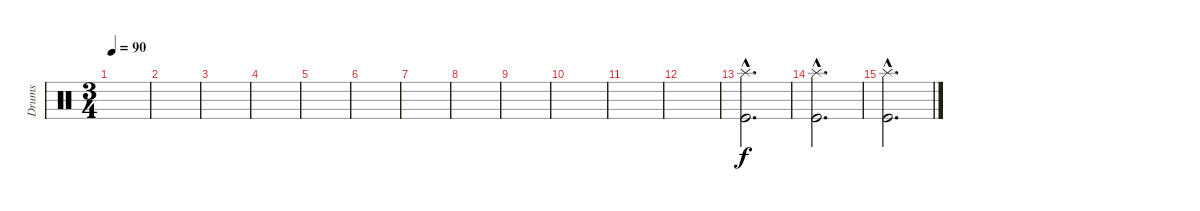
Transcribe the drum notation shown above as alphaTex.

\track ("Drums" "Drums") {instrument percussion}
\staff {score}
\articulation defaults
\ts (3 4)
\tempo 90
\clef neutral
\ks c
|
|
|
|
|
|
|
|
|
|
|
|
("Splash (hit)"{hac} "Kick (hit)"{hac}).2{d} |
("Splash (hit)"{hac} "Kick (hit)"{hac}).2{d} |
("Splash (hit)"{hac} "Kick (hit)"{hac}).2{d}
